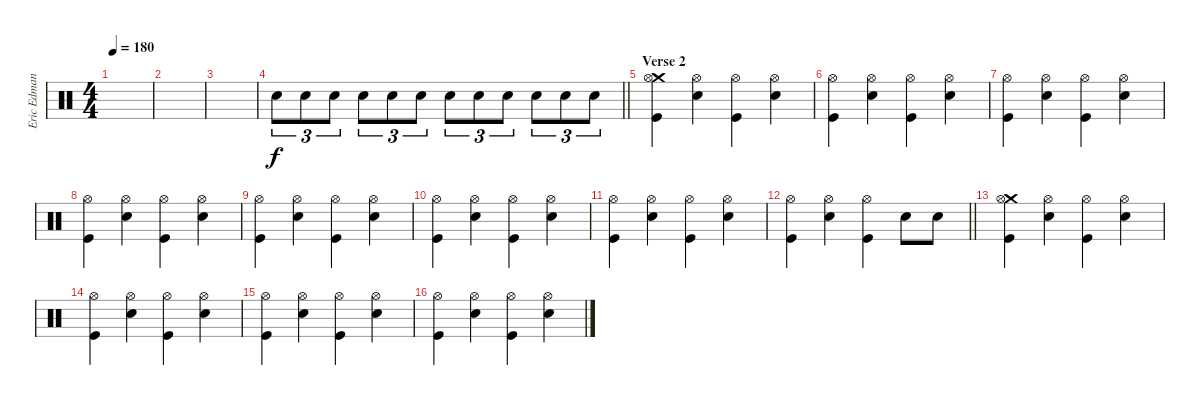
\track ("Eric Edman - Drums" "Eric Edman") {instrument percussion}
\staff {score}
\articulation defaults
\ts (4 4)
\tempo 180
\clef neutral
\ks c
|
|
|
\barLineRight lightlight "Snare (hit) 2".8{tu (3 2)} "Snare (hit) 2".8{tu (3 2)} "Snare (hit) 2".8{tu (3 2)} "Snare (hit) 2".8{tu (3 2)} "Snare (hit) 2".8{tu (3 2)} "Snare (hit) 2".8{tu (3 2)} "Snare (hit) 2".8{tu (3 2)} "Snare (hit) 2".8{tu (3 2)} "Snare (hit) 2".8{tu (3 2)} "Snare (hit) 2".8{tu (3 2)} "Snare (hit) 2".8{tu (3 2)} "Snare (hit) 2".8{tu (3 2)}
|
\section ("" "Verse 2")
("Crash medium (hit)" "Hi-Hat (open)" "Kick (hit)").4 ("Hi-Hat (open)" "Snare (hit) 2").4 ("Hi-Hat (open)" "Kick (hit)").4 ("Hi-Hat (open)" "Snare (hit) 2").4 |
("Hi-Hat (open)" "Kick (hit)").4 ("Hi-Hat (open)" "Snare (hit) 2").4 ("Hi-Hat (open)" "Kick (hit)").4 ("Hi-Hat (open)" "Snare (hit) 2").4 |
("Hi-Hat (open)" "Kick (hit)").4 ("Hi-Hat (open)" "Snare (hit) 2").4 ("Hi-Hat (open)" "Kick (hit)").4 ("Hi-Hat (open)" "Snare (hit) 2").4 |
("Hi-Hat (open)" "Kick (hit)").4 ("Hi-Hat (open)" "Snare (hit) 2").4 ("Hi-Hat (open)" "Kick (hit)").4 ("Hi-Hat (open)" "Snare (hit) 2").4 |
("Hi-Hat (open)" "Kick (hit)").4 ("Hi-Hat (open)" "Snare (hit) 2").4 ("Hi-Hat (open)" "Kick (hit)").4 ("Hi-Hat (open)" "Snare (hit) 2").4 |
("Hi-Hat (open)" "Kick (hit)").4 ("Hi-Hat (open)" "Snare (hit) 2").4 ("Hi-Hat (open)" "Kick (hit)").4 ("Hi-Hat (open)" "Snare (hit) 2").4 |
("Hi-Hat (open)" "Kick (hit)").4 ("Hi-Hat (open)" "Snare (hit) 2").4 ("Hi-Hat (open)" "Kick (hit)").4 ("Hi-Hat (open)" "Snare (hit) 2").4 |
\barLineRight lightlight
("Hi-Hat (open)" "Kick (hit)").4 ("Hi-Hat (open)" "Snare (hit) 2").4 ("Hi-Hat (open)" "Kick (hit)").4 "Snare (hit) 2".8 "Snare (hit) 2".8 |
("Crash medium (hit)" "Hi-Hat (open)" "Kick (hit)").4 ("Hi-Hat (open)" "Snare (hit) 2").4 ("Hi-Hat (open)" "Kick (hit)").4 ("Hi-Hat (open)" "Snare (hit) 2").4 |
("Hi-Hat (open)" "Kick (hit)").4 ("Hi-Hat (open)" "Snare (hit) 2").4 ("Hi-Hat (open)" "Kick (hit)").4 ("Hi-Hat (open)" "Snare (hit) 2").4 |
("Hi-Hat (open)" "Kick (hit)").4 ("Hi-Hat (open)" "Snare (hit) 2").4 ("Hi-Hat (open)" "Kick (hit)").4 ("Hi-Hat (open)" "Snare (hit) 2").4 |
("Hi-Hat (open)" "Kick (hit)").4 ("Hi-Hat (open)" "Snare (hit) 2").4 ("Hi-Hat (open)" "Kick (hit)").4 ("Hi-Hat (open)" "Snare (hit) 2").4
